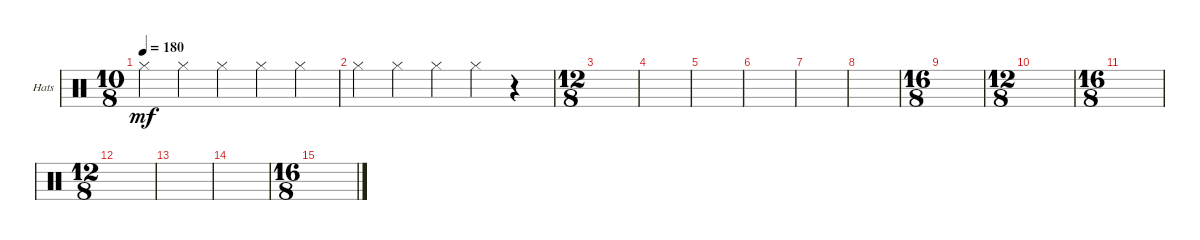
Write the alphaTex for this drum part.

\defaultSystemsLayout 4
\bracketExtendMode groupsimilarinstruments
\firstSystemTrackNameOrientation horizontal
\otherSystemsTrackNameOrientation horizontal
\track ("Hi Hats" "Hats") {instrument percussion}
\staff {score}
\articulation defaults
\ts (10 8)
\tempo 180
\clef neutral
\ks c "Hi-Hat (closed)".4{dy mf} "Hi-Hat (closed)".4 "Hi-Hat (closed)".4 "Hi-Hat (closed)".4 "Hi-Hat (closed)".4
|
"Hi-Hat (closed)".4 "Hi-Hat (closed)".4 "Hi-Hat (closed)".4 "Hi-Hat (closed)".4 r.4 |
\ts (12 8)
|
|
|
|
|
|
\ts (16 8)
|
\ts (12 8)
|
\ts (16 8)
|
\ts (12 8)
|
|
|
\ts (16 8)
